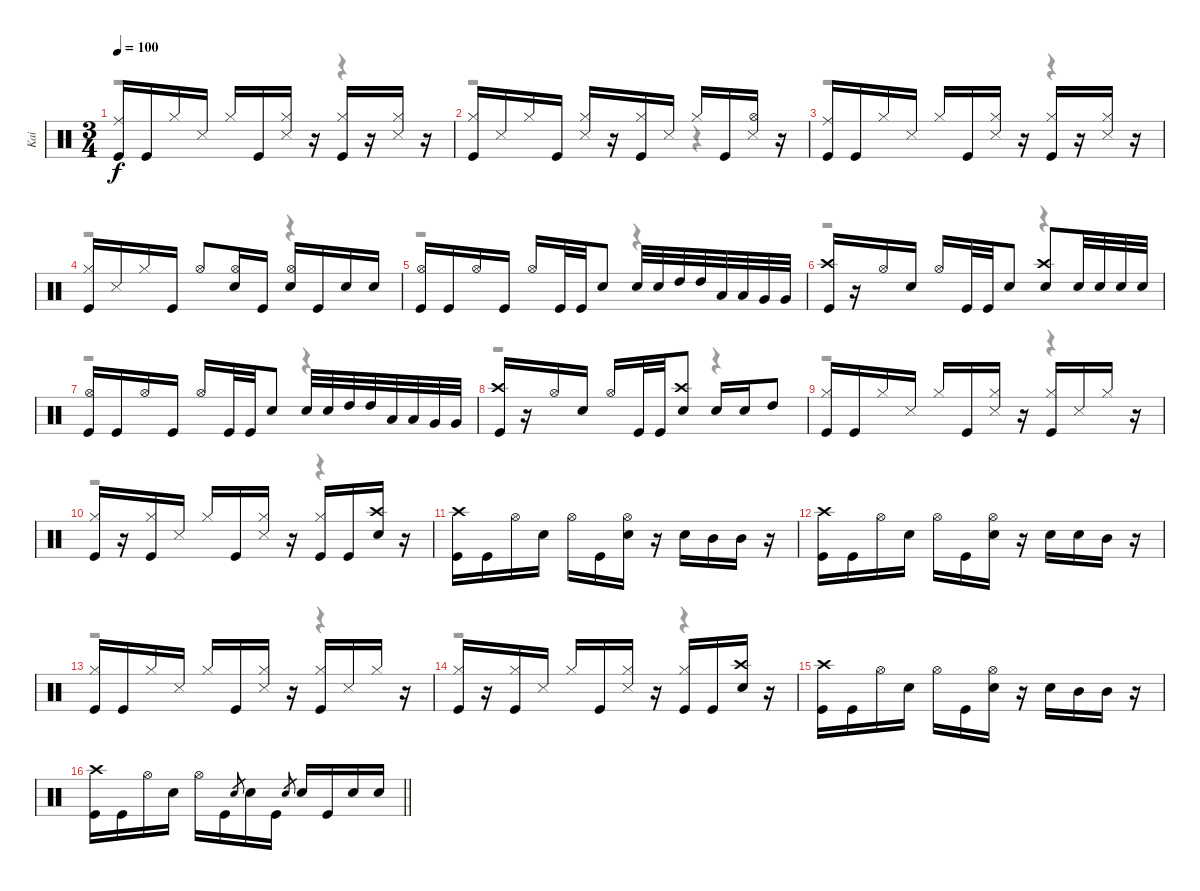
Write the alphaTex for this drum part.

\track ("Kai" "Kai") {instrument percussion}
\staff {score}
\articulation defaults
\voice
\ts (3 4)
\tempo 100
\clef neutral
\ks c
("Ride (middle)" "Kick (hit)").16{dy f} "Kick (hit)".16 "Hi-Hat (closed)".16 "Snare (side stick) 3".16 "Hi-Hat (closed)".16 "Kick (hit)".16 ("Hi-Hat (closed)" "Snare (side stick) 3").16 r.16 ("Hi-Hat (closed)" "Kick (hit)").16 r.16 ("Hi-Hat (closed)" "Snare (side stick) 3").16 r.16 |
("Hi-Hat (closed)" "Kick (hit)").16 "Snare (side stick) 3".16 "Hi-Hat (closed)".16 "Kick (hit)".16 ("Hi-Hat (closed)" "Snare (side stick) 3").16 r.16 ("Hi-Hat (closed)" "Kick (hit)").16 "Snare (side stick) 3".16 "Hi-Hat (closed)".16 "Kick (hit)".16 ("Hi-Hat (open)" "Snare (side stick) 3").16 r.16 |
("Ride (middle)" "Kick (hit)").16 "Kick (hit)".16 "Hi-Hat (closed)".16 "Snare (side stick) 3".16 "Hi-Hat (closed)".16 "Kick (hit)".16 ("Hi-Hat (closed)" "Snare (side stick) 3").16 r.16 ("Hi-Hat (closed)" "Kick (hit)").16 r.16 ("Hi-Hat (closed)" "Snare (side stick) 3").16 r.16 |
("Hi-Hat (closed)" "Kick (hit)").16 "Snare (side stick) 3".16 "Hi-Hat (closed)".16 "Kick (hit)".16 "Hi-Hat (open)".8 ("Hi-Hat (open)" "Snare (hit) 2").16 "Kick (hit)".16 ("Hi-Hat (open)" "Snare (hit) 2").16 "Kick (hit)".16 "Snare (hit) 2".16 "Snare (hit) 2".16 |
("Hi-Hat (open)" "Kick (hit)").16 "Kick (hit)".16 "Hi-Hat (open)".16 "Kick (hit)".16 "Hi-Hat (open)".16 "Kick (hit)".32 "Kick (hit)".32 "Snare (hit) 2".8 "Snare (hit) 2".32 "Snare (hit) 2".32 "High Tom (hit)".32 "High Tom (hit)".32 "Low Tom (hit)".32 "Low Tom (hit)".32 "Very Low Tom (hit)".32 "Very Low Tom (hit)".32 |
("Crash high (hit)" "Kick (hit)").16 r.16 "Hi-Hat (open)".16 "Snare (hit) 2".16 "Hi-Hat (open)".16 "Kick (hit)".32 "Kick (hit)".32 "Snare (hit) 2".8 ("Crash high (hit)" "Snare (hit) 2").8 "Snare (hit) 2".32 "Snare (hit) 2".32 "Snare (hit) 2".32 "Snare (hit) 2".32 |
("Hi-Hat (open)" "Kick (hit)").16 "Kick (hit)".16 "Hi-Hat (open)".16 "Kick (hit)".16 "Hi-Hat (open)".16 "Kick (hit)".32 "Kick (hit)".32 "Snare (hit) 2".8 "Snare (hit) 2".32 "Snare (hit) 2".32 "High Tom (hit)".32 "High Tom (hit)".32 "Low Tom (hit)".32 "Low Tom (hit)".32 "Very Low Tom (hit)".32 "Very Low Tom (hit)".32 |
("Crash high (hit)" "Kick (hit)").16 r.16 "Hi-Hat (open)".16 "Snare (hit) 2".16 "Hi-Hat (open)".16 "Kick (hit)".32 "Kick (hit)".32 ("Crash high (hit)" "Snare (hit) 2").8 "Snare (hit) 2".16 "Snare (hit) 2".16 "High Tom (hit)".8 |
("Hi-Hat (closed)" "Kick (hit)").16 "Kick (hit)".16 "Hi-Hat (closed)".16 "Snare (side stick) 3".16 "Hi-Hat (closed)".16 "Kick (hit)".16 ("Hi-Hat (closed)" "Snare (side stick) 3").16 r.16 ("Hi-Hat (closed)" "Kick (hit)").16 "Snare (side stick) 3".16 "Hi-Hat (closed)".16 r.16 |
("Hi-Hat (closed)" "Kick (hit)").16 r.16 ("Hi-Hat (closed)" "Kick (hit)").16 "Snare (side stick) 3".16 "Hi-Hat (closed)".16 "Kick (hit)".16 ("Hi-Hat (closed)" "Snare (side stick) 3").16 r.16 ("Hi-Hat (closed)" "Kick (hit)").16 "Kick (hit)".16 ("Crash high (hit)" "Snare (hit) 2").16 r.16 |
("Crash high (hit)" "Kick (hit)").16 "Kick (hit)".16 "Hi-Hat (open)".16 "Snare (hit) 2".16 "Hi-Hat (open)".16 "Kick (hit)".16 ("Hi-Hat (open)" "Snare (hit) 2").16 r.16 "Snare (hit) 2".16 "Mid Tom (hit)".16 "Mid Tom (hit)".16 r.16 |
("Crash high (hit)" "Kick (hit)").16 "Kick (hit)".16 "Hi-Hat (open)".16 "Snare (hit) 2".16 "Hi-Hat (open)".16 "Kick (hit)".16 ("Hi-Hat (open)" "Snare (hit) 2").16 r.16 "Snare (hit) 2".16 "Snare (hit) 2".16 "Mid Tom (hit)".16 r.16 |
("Hi-Hat (closed)" "Kick (hit)").16 "Kick (hit)".16 "Hi-Hat (closed)".16 "Snare (side stick) 3".16 "Hi-Hat (closed)".16 "Kick (hit)".16 ("Hi-Hat (closed)" "Snare (side stick) 3").16 r.16 ("Hi-Hat (closed)" "Kick (hit)").16 "Snare (side stick) 3".16 "Hi-Hat (closed)".16 r.16 |
("Hi-Hat (closed)" "Kick (hit)").16 r.16 ("Hi-Hat (closed)" "Kick (hit)").16 "Snare (side stick) 3".16 "Hi-Hat (closed)".16 "Kick (hit)".16 ("Hi-Hat (closed)" "Snare (side stick) 3").16 r.16 ("Hi-Hat (closed)" "Kick (hit)").16 "Kick (hit)".16 ("Crash high (hit)" "Snare (hit) 2").16 r.16 |
("Crash high (hit)" "Kick (hit)").16 "Kick (hit)".16 "Hi-Hat (open)".16 "Snare (hit) 2".16 "Hi-Hat (open)".16 "Kick (hit)".16 ("Hi-Hat (open)" "Snare (hit) 2").16 r.16 "Snare (hit) 2".16 "Mid Tom (hit)".16 "Mid Tom (hit)".16 r.16 |
\barLineRight lightlight
("Crash high (hit)" "Kick (hit)").16 "Kick (hit)".16 "Hi-Hat (open)".16 "Snare (hit) 2".16 "Hi-Hat (open)".16 "Kick (hit)".16 "Snare (hit) 2".8{gr} "Snare (hit) 2".16 "Kick (hit)".16 "Snare (hit) 2".8{gr} "Snare (hit) 2".16 "Kick (hit)".16 "Snare (hit) 2".16 "Snare (hit) 2".16
\voice
\clef neutral
\ottava regular
\simile none
\ks c
r.2{dy f} r.4 |
r.2 r.4 |
r.2 r.4 |
r.2 r.4 |
r.2 r.4 |
r.2 r.4 |
r.2 r.4 |
r.2 r.4 |
r.2 r.4 |
r.2 r.4 |
|
|
r.2 r.4 |
r.2 r.4 |
|
\barLineRight lightlight
